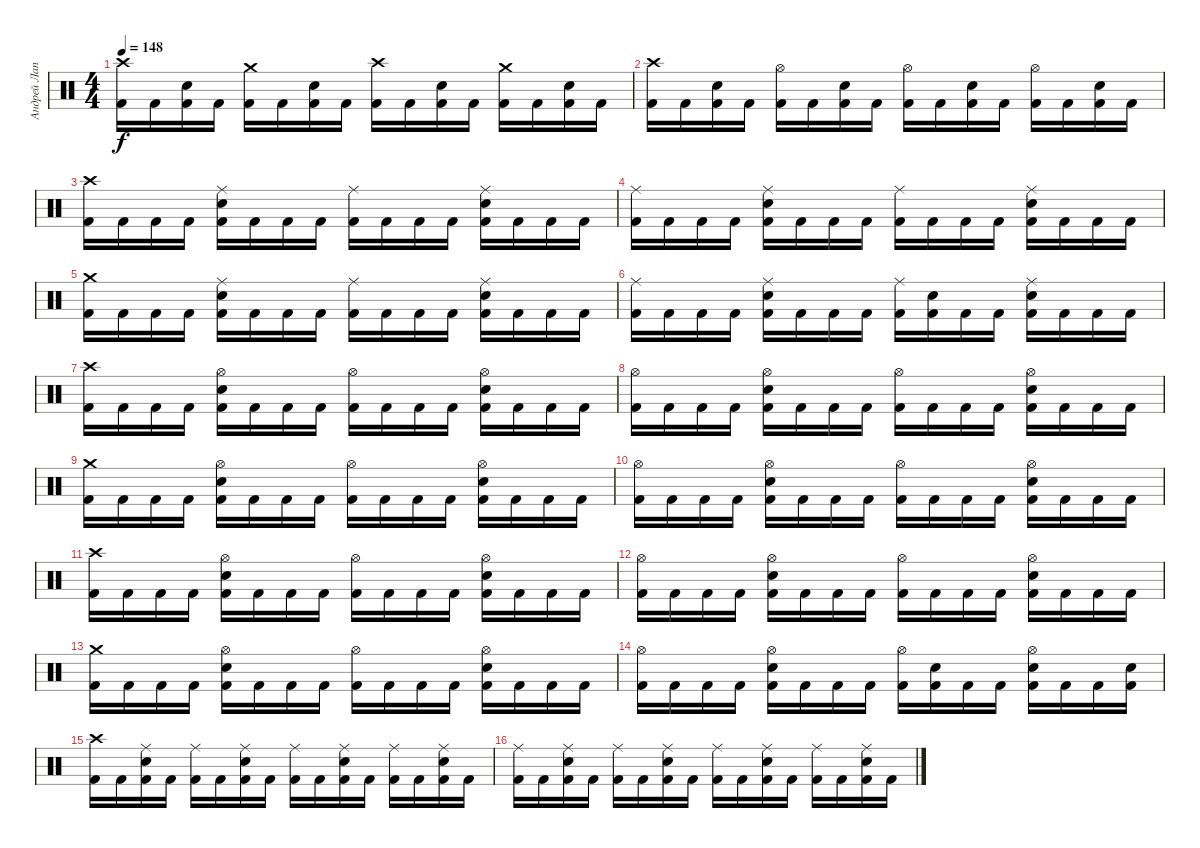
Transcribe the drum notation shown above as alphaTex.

\track ("Андрей Лаптев" "Андрей Лап") {instrument percussion}
\staff {score}
\articulation defaults
\ts (4 4)
\tempo 148
\clef neutral
\ks c
("Crash high (hit)" "Kick (hit) 2").16{dy f} "Kick (hit) 2".16 ("Electric Snare (hit)" "Kick (hit) 2").16 "Kick (hit) 2".16 ("Crash medium (hit)" "Kick (hit) 2").16 "Kick (hit) 2".16 ("Electric Snare (hit)" "Kick (hit) 2").16 "Kick (hit) 2".16 ("Crash high (hit)" "Kick (hit) 2").16 "Kick (hit) 2".16 ("Electric Snare (hit)" "Kick (hit) 2").16 "Kick (hit) 2".16 ("Crash medium (hit)" "Kick (hit) 2").16 "Kick (hit) 2".16 ("Electric Snare (hit)" "Kick (hit) 2").16 "Kick (hit) 2".16 |
("Crash high (hit)" "Kick (hit) 2").16 "Kick (hit) 2".16 ("Electric Snare (hit)" "Kick (hit) 2").16 "Kick (hit) 2".16 ("Hi-Hat (open)" "Kick (hit) 2").16 "Kick (hit) 2".16 ("Electric Snare (hit)" "Kick (hit) 2").16 "Kick (hit) 2".16 ("Hi-Hat (open)" "Kick (hit) 2").16 "Kick (hit) 2".16 ("Electric Snare (hit)" "Kick (hit) 2").16 "Kick (hit) 2".16 ("Hi-Hat (open)" "Kick (hit) 2").16 "Kick (hit) 2".16 ("Electric Snare (hit)" "Kick (hit) 2").16 "Kick (hit) 2".16 |
("Crash high (hit)" "Kick (hit) 2").16 "Kick (hit) 2".16 "Kick (hit) 2".16 "Kick (hit) 2".16 ("Ride (middle)" "Electric Snare (hit)" "Kick (hit) 2").16 "Kick (hit) 2".16 "Kick (hit) 2".16 "Kick (hit) 2".16 ("Ride (middle)" "Kick (hit) 2").16 "Kick (hit) 2".16 "Kick (hit) 2".16 "Kick (hit) 2".16 ("Ride (middle)" "Electric Snare (hit)" "Kick (hit) 2").16 "Kick (hit) 2".16 "Kick (hit) 2".16 "Kick (hit) 2".16 |
("Ride (middle)" "Kick (hit) 2").16 "Kick (hit) 2".16 "Kick (hit) 2".16 "Kick (hit) 2".16 ("Ride (middle)" "Electric Snare (hit)" "Kick (hit) 2").16 "Kick (hit) 2".16 "Kick (hit) 2".16 "Kick (hit) 2".16 ("Ride (middle)" "Kick (hit) 2").16 "Kick (hit) 2".16 "Kick (hit) 2".16 "Kick (hit) 2".16 ("Ride (middle)" "Electric Snare (hit)" "Kick (hit) 2").16 "Kick (hit) 2".16 "Kick (hit) 2".16 "Kick (hit) 2".16 |
("Crash medium (hit)" "Kick (hit) 2").16 "Kick (hit) 2".16 "Kick (hit) 2".16 "Kick (hit) 2".16 ("Ride (middle)" "Electric Snare (hit)" "Kick (hit) 2").16 "Kick (hit) 2".16 "Kick (hit) 2".16 "Kick (hit) 2".16 ("Ride (middle)" "Kick (hit) 2").16 "Kick (hit) 2".16 "Kick (hit) 2".16 "Kick (hit) 2".16 ("Ride (middle)" "Electric Snare (hit)" "Kick (hit) 2").16 "Kick (hit) 2".16 "Kick (hit) 2".16 "Kick (hit) 2".16 |
("Ride (middle)" "Kick (hit) 2").16 "Kick (hit) 2".16 "Kick (hit) 2".16 "Kick (hit) 2".16 ("Ride (middle)" "Electric Snare (hit)" "Kick (hit) 2").16 "Kick (hit) 2".16 "Kick (hit) 2".16 "Kick (hit) 2".16 ("Ride (middle)" "Kick (hit) 2").16 ("Electric Snare (hit)" "Kick (hit) 2").16 "Kick (hit) 2".16 "Kick (hit) 2".16 ("Ride (middle)" "Electric Snare (hit)" "Kick (hit) 2").16 "Kick (hit) 2".16 "Kick (hit) 2".16 "Kick (hit) 2".16 |
("Crash high (hit)" "Kick (hit) 2").16 "Kick (hit) 2".16 "Kick (hit) 2".16 "Kick (hit) 2".16 ("Hi-Hat (open)" "Electric Snare (hit)" "Kick (hit) 2").16 "Kick (hit) 2".16 "Kick (hit) 2".16 "Kick (hit) 2".16 ("Hi-Hat (open)" "Kick (hit) 2").16 "Kick (hit) 2".16 "Kick (hit) 2".16 "Kick (hit) 2".16 ("Hi-Hat (open)" "Electric Snare (hit)" "Kick (hit) 2").16 "Kick (hit) 2".16 "Kick (hit) 2".16 "Kick (hit) 2".16 |
("Hi-Hat (open)" "Kick (hit) 2").16 "Kick (hit) 2".16 "Kick (hit) 2".16 "Kick (hit) 2".16 ("Hi-Hat (open)" "Electric Snare (hit)" "Kick (hit) 2").16 "Kick (hit) 2".16 "Kick (hit) 2".16 "Kick (hit) 2".16 ("Hi-Hat (open)" "Kick (hit) 2").16 "Kick (hit) 2".16 "Kick (hit) 2".16 "Kick (hit) 2".16 ("Hi-Hat (open)" "Electric Snare (hit)" "Kick (hit) 2").16 "Kick (hit) 2".16 "Kick (hit) 2".16 "Kick (hit) 2".16 |
("Crash medium (hit)" "Kick (hit) 2").16 "Kick (hit) 2".16 "Kick (hit) 2".16 "Kick (hit) 2".16 ("Hi-Hat (open)" "Electric Snare (hit)" "Kick (hit) 2").16 "Kick (hit) 2".16 "Kick (hit) 2".16 "Kick (hit) 2".16 ("Hi-Hat (open)" "Kick (hit) 2").16 "Kick (hit) 2".16 "Kick (hit) 2".16 "Kick (hit) 2".16 ("Hi-Hat (open)" "Electric Snare (hit)" "Kick (hit) 2").16 "Kick (hit) 2".16 "Kick (hit) 2".16 "Kick (hit) 2".16 |
("Hi-Hat (open)" "Kick (hit) 2").16 "Kick (hit) 2".16 "Kick (hit) 2".16 "Kick (hit) 2".16 ("Hi-Hat (open)" "Electric Snare (hit)" "Kick (hit) 2").16 "Kick (hit) 2".16 "Kick (hit) 2".16 "Kick (hit) 2".16 ("Hi-Hat (open)" "Kick (hit) 2").16 "Kick (hit) 2".16 "Kick (hit) 2".16 "Kick (hit) 2".16 ("Hi-Hat (open)" "Electric Snare (hit)" "Kick (hit) 2").16 "Kick (hit) 2".16 "Kick (hit) 2".16 "Kick (hit) 2".16 |
("Crash high (hit)" "Kick (hit) 2").16 "Kick (hit) 2".16 "Kick (hit) 2".16 "Kick (hit) 2".16 ("Hi-Hat (open)" "Electric Snare (hit)" "Kick (hit) 2").16 "Kick (hit) 2".16 "Kick (hit) 2".16 "Kick (hit) 2".16 ("Hi-Hat (open)" "Kick (hit) 2").16 "Kick (hit) 2".16 "Kick (hit) 2".16 "Kick (hit) 2".16 ("Hi-Hat (open)" "Electric Snare (hit)" "Kick (hit) 2").16 "Kick (hit) 2".16 "Kick (hit) 2".16 "Kick (hit) 2".16 |
("Hi-Hat (open)" "Kick (hit) 2").16 "Kick (hit) 2".16 "Kick (hit) 2".16 "Kick (hit) 2".16 ("Hi-Hat (open)" "Electric Snare (hit)" "Kick (hit) 2").16 "Kick (hit) 2".16 "Kick (hit) 2".16 "Kick (hit) 2".16 ("Hi-Hat (open)" "Kick (hit) 2").16 "Kick (hit) 2".16 "Kick (hit) 2".16 "Kick (hit) 2".16 ("Hi-Hat (open)" "Electric Snare (hit)" "Kick (hit) 2").16 "Kick (hit) 2".16 "Kick (hit) 2".16 "Kick (hit) 2".16 |
("Crash medium (hit)" "Kick (hit) 2").16 "Kick (hit) 2".16 "Kick (hit) 2".16 "Kick (hit) 2".16 ("Hi-Hat (open)" "Electric Snare (hit)" "Kick (hit) 2").16 "Kick (hit) 2".16 "Kick (hit) 2".16 "Kick (hit) 2".16 ("Hi-Hat (open)" "Kick (hit) 2").16 "Kick (hit) 2".16 "Kick (hit) 2".16 "Kick (hit) 2".16 ("Hi-Hat (open)" "Electric Snare (hit)" "Kick (hit) 2").16 "Kick (hit) 2".16 "Kick (hit) 2".16 "Kick (hit) 2".16 |
("Hi-Hat (open)" "Kick (hit) 2").16 "Kick (hit) 2".16 "Kick (hit) 2".16 "Kick (hit) 2".16 ("Hi-Hat (open)" "Electric Snare (hit)" "Kick (hit) 2").16 "Kick (hit) 2".16 "Kick (hit) 2".16 "Kick (hit) 2".16 ("Hi-Hat (open)" "Kick (hit) 2").16 ("Electric Snare (hit)" "Kick (hit) 2").16 "Kick (hit) 2".16 "Kick (hit) 2".16 ("Hi-Hat (open)" "Electric Snare (hit)" "Kick (hit) 2").16 "Kick (hit) 2".16 "Kick (hit) 2".16 ("Electric Snare (hit)" "Kick (hit) 2").16 |
("Crash high (hit)" "Kick (hit) 2").16 "Kick (hit) 2".16 ("Ride (middle)" "Electric Snare (hit)" "Kick (hit) 2").16 "Kick (hit) 2".16 ("Ride (middle)" "Kick (hit) 2").16 "Kick (hit) 2".16 ("Ride (middle)" "Electric Snare (hit)" "Kick (hit) 2").16 "Kick (hit) 2".16 ("Ride (middle)" "Kick (hit) 2").16 "Kick (hit) 2".16 ("Ride (middle)" "Electric Snare (hit)" "Kick (hit) 2").16 "Kick (hit) 2".16 ("Ride (middle)" "Kick (hit) 2").16 "Kick (hit) 2".16 ("Ride (middle)" "Electric Snare (hit)" "Kick (hit) 2").16 "Kick (hit) 2".16 |
("Ride (middle)" "Kick (hit) 2").16 "Kick (hit) 2".16 ("Ride (middle)" "Electric Snare (hit)" "Kick (hit) 2").16 "Kick (hit) 2".16 ("Ride (middle)" "Kick (hit) 2").16 "Kick (hit) 2".16 ("Ride (middle)" "Electric Snare (hit)" "Kick (hit) 2").16 "Kick (hit) 2".16 ("Ride (middle)" "Kick (hit) 2").16 "Kick (hit) 2".16 ("Ride (middle)" "Electric Snare (hit)" "Kick (hit) 2").16 "Kick (hit) 2".16 ("Ride (middle)" "Kick (hit) 2").16 "Kick (hit) 2".16 ("Ride (middle)" "Electric Snare (hit)" "Kick (hit) 2").16 "Kick (hit) 2".16
